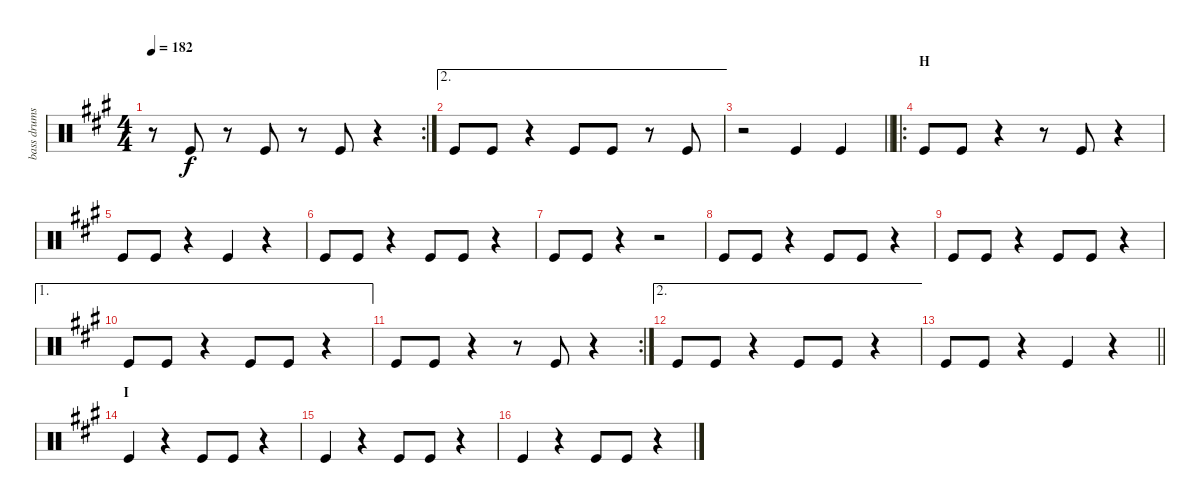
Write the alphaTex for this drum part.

\track ("bass drums" "bass drums") {instrument percussion}
\staff {score}
\articulation defaults
\rc 2
\ts (4 4)
\tempo 182
\clef neutral
\ks f#minor
r.8{dy f} "Kick (hit)".8 r.8 "Kick (hit)".8 r.8 "Kick (hit)".8 r.4 |
\ae 2 "Kick (hit)".8 "Kick (hit)".8
r.4 "Kick (hit)".8 "Kick (hit)".8 r.8 "Kick (hit)".8 |
\barLineRight lightlight
r.2 "Kick (hit)".4 "Kick (hit)".4 |
\ro
\section ("" "H")
"Kick (hit)".8 "Kick (hit)".8 r.4 r.8 "Kick (hit)".8 r.4 |
"Kick (hit)".8 "Kick (hit)".8 r.4 "Kick (hit)".4 r.4 |
"Kick (hit)".8 "Kick (hit)".8 r.4 "Kick (hit)".8 "Kick (hit)".8 r.4 |
"Kick (hit)".8 "Kick (hit)".8 r.4 r.2 |
"Kick (hit)".8 "Kick (hit)".8 r.4 "Kick (hit)".8 "Kick (hit)".8 r.4 |
"Kick (hit)".8 "Kick (hit)".8 r.4 "Kick (hit)".8 "Kick (hit)".8 r.4 |
\ae 1 "Kick (hit)".8 "Kick (hit)".8
r.4 "Kick (hit)".8 "Kick (hit)".8 r.4 |
\rc 2 "Kick (hit)".8 "Kick (hit)".8
r.4 r.8 "Kick (hit)".8 r.4 |
\ae 2 "Kick (hit)".8 "Kick (hit)".8
r.4 "Kick (hit)".8 "Kick (hit)".8 r.4 |
\barLineRight lightlight "Kick (hit)".8 "Kick (hit)".8
r.4 "Kick (hit)".4 r.4 |
\section ("" "I")
"Kick (hit)".4 r.4 "Kick (hit)".8 "Kick (hit)".8 r.4 |
"Kick (hit)".4 r.4 "Kick (hit)".8 "Kick (hit)".8 r.4 |
"Kick (hit)".4 r.4 "Kick (hit)".8 "Kick (hit)".8 r.4
